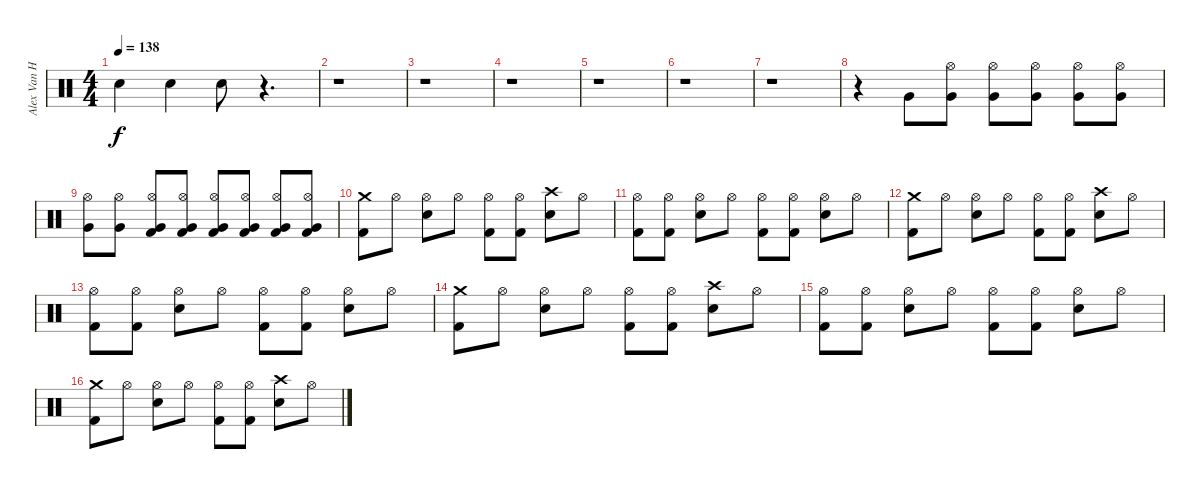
\track ("Alex Van Halen " "Alex Van H") {instrument percussion}
\staff {score}
\articulation defaults
\ts (4 4)
\tempo 138
\clef neutral
\ks c "Hand Clap (hit)".4{dy f} "Hand Clap (hit)".4 "Hand Clap (hit)".8
r.4{d} |
r.1 |
r.1 |
r.1 |
r.1 |
r.1 |
r.1 |
r.4 "Very Low Tom (hit)".8 ("Hi-Hat (open)" "Very Low Tom (hit)").8 ("Hi-Hat (open)" "Very Low Tom (hit)").8 ("Hi-Hat (open)" "Very Low Tom (hit)").8 ("Hi-Hat (open)" "Very Low Tom (hit)").8 ("Very Low Tom (hit)" "Hi-Hat (open)").8 |
("Hi-Hat (open)" "Very Low Tom (hit)").8 ("Hi-Hat (open)" "Very Low Tom (hit)").8 ("Kick (hit) 2" "Hi-Hat (open)" "Very Low Tom (hit)").8 ("Kick (hit) 2" "Hi-Hat (open)" "Very Low Tom (hit)").8 ("Kick (hit) 2" "Hi-Hat (open)" "Very Low Tom (hit)").8 ("Kick (hit) 2" "Hi-Hat (open)" "Very Low Tom (hit)").8 ("Very Low Tom (hit)" "Hi-Hat (open)" "Kick (hit) 2").8 ("Very Low Tom (hit)" "Hi-Hat (open)" "Kick (hit) 2").8 |
("Crash medium (hit)" "Kick (hit) 2").8 "Hi-Hat (open)".8 ("Hi-Hat (open)" "Snare (hit) 2").8 "Hi-Hat (open)".8 ("Hi-Hat (open)" "Kick (hit) 2").8 ("Hi-Hat (open)" "Kick (hit) 2").8 ("Crash high (hit)" "Snare (hit) 2").8 "Hi-Hat (open)".8 |
("Hi-Hat (open)" "Kick (hit) 2").8 ("Hi-Hat (open)" "Kick (hit) 2").8 ("Hi-Hat (open)" "Snare (hit) 2").8 "Hi-Hat (open)".8 ("Hi-Hat (open)" "Kick (hit) 2").8 ("Hi-Hat (open)" "Kick (hit) 2").8 ("Hi-Hat (open)" "Snare (hit) 2").8 "Hi-Hat (open)".8 |
("Crash medium (hit)" "Kick (hit) 2").8 "Hi-Hat (open)".8 ("Hi-Hat (open)" "Snare (hit) 2").8 "Hi-Hat (open)".8 ("Hi-Hat (open)" "Kick (hit) 2").8 ("Hi-Hat (open)" "Kick (hit) 2").8 ("Crash high (hit)" "Snare (hit) 2").8 "Hi-Hat (open)".8 |
("Hi-Hat (open)" "Kick (hit) 2").8 ("Hi-Hat (open)" "Kick (hit) 2").8 ("Hi-Hat (open)" "Snare (hit) 2").8 "Hi-Hat (open)".8 ("Hi-Hat (open)" "Kick (hit) 2").8 ("Hi-Hat (open)" "Kick (hit) 2").8 ("Hi-Hat (open)" "Snare (hit) 2").8 "Hi-Hat (open)".8 |
("Crash medium (hit)" "Kick (hit) 2").8 "Hi-Hat (open)".8 ("Hi-Hat (open)" "Snare (hit) 2").8 "Hi-Hat (open)".8 ("Hi-Hat (open)" "Kick (hit) 2").8 ("Hi-Hat (open)" "Kick (hit) 2").8 ("Crash high (hit)" "Snare (hit) 2").8 "Hi-Hat (open)".8 |
("Hi-Hat (open)" "Kick (hit) 2").8 ("Hi-Hat (open)" "Kick (hit) 2").8 ("Hi-Hat (open)" "Snare (hit) 2").8 "Hi-Hat (open)".8 ("Hi-Hat (open)" "Kick (hit) 2").8 ("Hi-Hat (open)" "Kick (hit) 2").8 ("Hi-Hat (open)" "Snare (hit) 2").8 "Hi-Hat (open)".8 |
("Crash medium (hit)" "Kick (hit) 2").8 "Hi-Hat (open)".8 ("Hi-Hat (open)" "Snare (hit) 2").8 "Hi-Hat (open)".8 ("Hi-Hat (open)" "Kick (hit) 2").8 ("Hi-Hat (open)" "Kick (hit) 2").8 ("Crash high (hit)" "Snare (hit) 2").8 "Hi-Hat (open)".8
